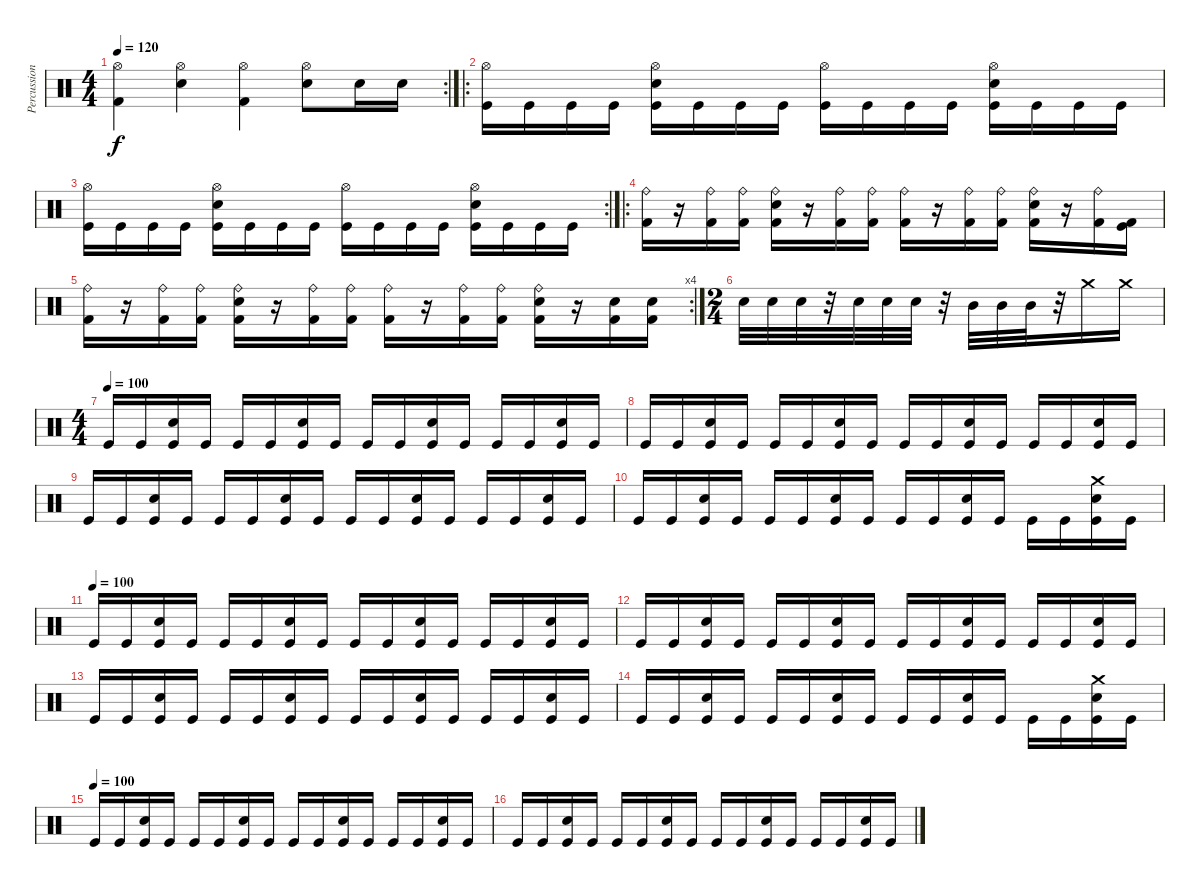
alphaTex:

\track ("Percussions" "Percussion") {instrument percussion}
\staff {score}
\articulation defaults
\rc 2
\ts (4 4)
\tempo 120
\clef neutral
\ks c
("Kick (hit) 2" "Hi-Hat (open)").4{dy f} ("Electric Snare (hit)" "Hi-Hat (open)").4 ("Kick (hit) 2" "Hi-Hat (open)").4 ("Electric Snare (hit)" "Hi-Hat (open)").8 "Electric Snare (hit)".16 "Electric Snare (hit)".16 |
\ro
("Kick (hit)" "Hi-Hat (open)").16 "Kick (hit)".16 "Kick (hit)".16 "Kick (hit)".16 ("Kick (hit)" "Electric Snare (hit)" "Hi-Hat (open)").16 "Kick (hit)".16 "Kick (hit)".16 "Kick (hit)".16 ("Kick (hit)" "Hi-Hat (open)").16 "Kick (hit)".16 "Kick (hit)".16 "Kick (hit)".16 ("Kick (hit)" "Electric Snare (hit)" "Hi-Hat (open)").16 "Kick (hit)".16 "Kick (hit)".16 "Kick (hit)".16 |
\rc 2
("Kick (hit)" "Hi-Hat (open)").16 "Kick (hit)".16 "Kick (hit)".16 "Kick (hit)".16 ("Kick (hit)" "Electric Snare (hit)" "Hi-Hat (open)").16 "Kick (hit)".16 "Kick (hit)".16 "Kick (hit)".16 ("Kick (hit)" "Hi-Hat (open)").16 "Kick (hit)".16 "Kick (hit)".16 "Kick (hit)".16 ("Kick (hit)" "Electric Snare (hit)" "Hi-Hat (open)").16 "Kick (hit)".16 "Kick (hit)".16 "Kick (hit)".16 |
\ro
("Kick (hit) 2" "Ride (bell)").16 r.16 ("Kick (hit) 2" "Ride (bell)").16 ("Kick (hit) 2" "Ride (bell)").16 ("Kick (hit) 2" "Electric Snare (hit)" "Ride (bell)").16 r.16 ("Kick (hit) 2" "Ride (bell)").16 ("Kick (hit) 2" "Ride (bell)").16 ("Kick (hit) 2" "Ride (bell)").16 r.16 ("Kick (hit) 2" "Ride (bell)").16 ("Kick (hit) 2" "Ride (bell)").16 ("Kick (hit) 2" "Electric Snare (hit)" "Ride (bell)").16 r.16 ("Kick (hit) 2" "Ride (bell)").16 ("Kick (hit) 2" "Kick (hit)").16 |
\rc 4
("Kick (hit) 2" "Ride (bell)").16 r.16 ("Kick (hit) 2" "Ride (bell)").16 ("Kick (hit) 2" "Ride (bell)").16 ("Kick (hit) 2" "Electric Snare (hit)" "Ride (bell)").16 r.16 ("Kick (hit) 2" "Ride (bell)").16 ("Kick (hit) 2" "Ride (bell)").16 ("Kick (hit) 2" "Ride (bell)").16 r.16 ("Kick (hit) 2" "Ride (bell)").16 ("Kick (hit) 2" "Ride (bell)").16 ("Kick (hit) 2" "Electric Snare (hit)" "Ride (bell)").16 r.16 ("Kick (hit) 2" "Electric Snare (hit)").16 ("Kick (hit) 2" "Electric Snare (hit)").16 |
\ts (2 4)
"Electric Snare (hit)".32 "Electric Snare (hit)".32 "Electric Snare (hit)".32 r.32 "Snare (hit) 2".32 "Snare (hit) 2".32 "Snare (hit) 2".32 r.32 "Mid Tom (hit)".32 "Mid Tom (hit)".32 "Mid Tom (hit)".32 r.32 "Crash medium (hit)".16 "Crash medium (hit)".16 |
\ts (4 4)
\tempo (100)
"Kick (hit)".16 "Kick (hit)".16 ("Kick (hit)" "Electric Snare (hit)").16 "Kick (hit)".16 "Kick (hit)".16 "Kick (hit)".16 ("Kick (hit)" "Electric Snare (hit)").16 "Kick (hit)".16 "Kick (hit)".16 "Kick (hit)".16 ("Kick (hit)" "Electric Snare (hit)").16 "Kick (hit)".16 "Kick (hit)".16 "Kick (hit)".16 ("Kick (hit)" "Electric Snare (hit)").16 "Kick (hit)".16 |
"Kick (hit)".16 "Kick (hit)".16 ("Kick (hit)" "Electric Snare (hit)").16 "Kick (hit)".16 "Kick (hit)".16 "Kick (hit)".16 ("Kick (hit)" "Electric Snare (hit)").16 "Kick (hit)".16 "Kick (hit)".16 "Kick (hit)".16 ("Kick (hit)" "Electric Snare (hit)").16 "Kick (hit)".16 "Kick (hit)".16 "Kick (hit)".16 ("Kick (hit)" "Electric Snare (hit)").16 "Kick (hit)".16 |
"Kick (hit)".16 "Kick (hit)".16 ("Kick (hit)" "Electric Snare (hit)").16 "Kick (hit)".16 "Kick (hit)".16 "Kick (hit)".16 ("Kick (hit)" "Electric Snare (hit)").16 "Kick (hit)".16 "Kick (hit)".16 "Kick (hit)".16 ("Kick (hit)" "Electric Snare (hit)").16 "Kick (hit)".16 "Kick (hit)".16 "Kick (hit)".16 ("Kick (hit)" "Electric Snare (hit)").16 "Kick (hit)".16 |
"Kick (hit)".16 "Kick (hit)".16 ("Kick (hit)" "Electric Snare (hit)").16 "Kick (hit)".16 "Kick (hit)".16 "Kick (hit)".16 ("Kick (hit)" "Electric Snare (hit)").16 "Kick (hit)".16 "Kick (hit)".16 "Kick (hit)".16 ("Kick (hit)" "Electric Snare (hit)").16 "Kick (hit)".16 "Kick (hit)".16 "Kick (hit)".16 ("Kick (hit)" "Crash medium (hit)" "Electric Snare (hit)").16 "Kick (hit)".16 |
\tempo (100)
"Kick (hit)".16 "Kick (hit)".16 ("Kick (hit)" "Electric Snare (hit)").16 "Kick (hit)".16 "Kick (hit)".16 "Kick (hit)".16 ("Kick (hit)" "Electric Snare (hit)").16 "Kick (hit)".16 "Kick (hit)".16 "Kick (hit)".16 ("Kick (hit)" "Electric Snare (hit)").16 "Kick (hit)".16 "Kick (hit)".16 "Kick (hit)".16 ("Kick (hit)" "Electric Snare (hit)").16 "Kick (hit)".16 |
"Kick (hit)".16 "Kick (hit)".16 ("Kick (hit)" "Electric Snare (hit)").16 "Kick (hit)".16 "Kick (hit)".16 "Kick (hit)".16 ("Kick (hit)" "Electric Snare (hit)").16 "Kick (hit)".16 "Kick (hit)".16 "Kick (hit)".16 ("Kick (hit)" "Electric Snare (hit)").16 "Kick (hit)".16 "Kick (hit)".16 "Kick (hit)".16 ("Kick (hit)" "Electric Snare (hit)").16 "Kick (hit)".16 |
"Kick (hit)".16 "Kick (hit)".16 ("Kick (hit)" "Electric Snare (hit)").16 "Kick (hit)".16 "Kick (hit)".16 "Kick (hit)".16 ("Kick (hit)" "Electric Snare (hit)").16 "Kick (hit)".16 "Kick (hit)".16 "Kick (hit)".16 ("Kick (hit)" "Electric Snare (hit)").16 "Kick (hit)".16 "Kick (hit)".16 "Kick (hit)".16 ("Kick (hit)" "Electric Snare (hit)").16 "Kick (hit)".16 |
"Kick (hit)".16 "Kick (hit)".16 ("Kick (hit)" "Electric Snare (hit)").16 "Kick (hit)".16 "Kick (hit)".16 "Kick (hit)".16 ("Kick (hit)" "Electric Snare (hit)").16 "Kick (hit)".16 "Kick (hit)".16 "Kick (hit)".16 ("Kick (hit)" "Electric Snare (hit)").16 "Kick (hit)".16 "Kick (hit)".16 "Kick (hit)".16 ("Kick (hit)" "Crash medium (hit)" "Electric Snare (hit)").16 "Kick (hit)".16 |
\tempo (100)
"Kick (hit)".16 "Kick (hit)".16 ("Kick (hit)" "Electric Snare (hit)").16 "Kick (hit)".16 "Kick (hit)".16 "Kick (hit)".16 ("Kick (hit)" "Electric Snare (hit)").16 "Kick (hit)".16 "Kick (hit)".16 "Kick (hit)".16 ("Kick (hit)" "Electric Snare (hit)").16 "Kick (hit)".16 "Kick (hit)".16 "Kick (hit)".16 ("Kick (hit)" "Electric Snare (hit)").16 "Kick (hit)".16 |
"Kick (hit)".16 "Kick (hit)".16 ("Kick (hit)" "Electric Snare (hit)").16 "Kick (hit)".16 "Kick (hit)".16 "Kick (hit)".16 ("Kick (hit)" "Electric Snare (hit)").16 "Kick (hit)".16 "Kick (hit)".16 "Kick (hit)".16 ("Kick (hit)" "Electric Snare (hit)").16 "Kick (hit)".16 "Kick (hit)".16 "Kick (hit)".16 ("Kick (hit)" "Electric Snare (hit)").16 "Kick (hit)".16
